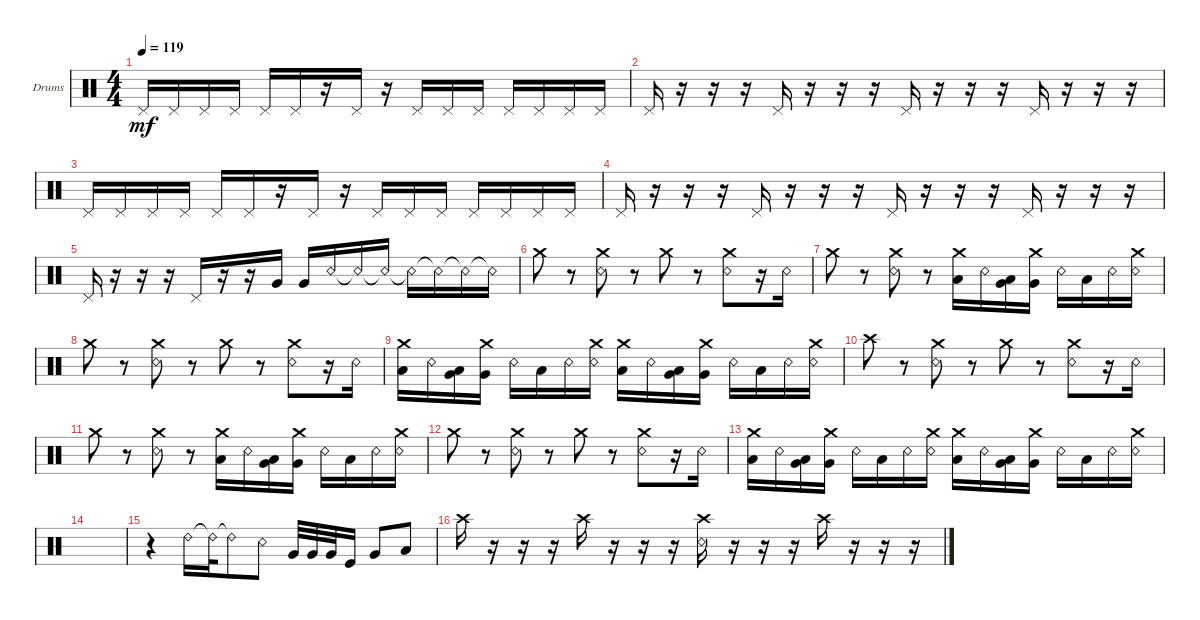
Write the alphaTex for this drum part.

\defaultSystemsLayout 4
\bracketExtendMode groupsimilarinstruments
\firstSystemTrackNameOrientation horizontal
\otherSystemsTrackNameOrientation horizontal
\track ("Drumkit" "Drums") {instrument percussion}
\staff {score}
\articulation defaults
\ts (4 4)
\tempo 119
\clef neutral
\scale
0.333333
\ks c "Pedal Hi-Hat (hit)".16{dy mf} "Pedal Hi-Hat (hit)".16 "Pedal Hi-Hat (hit)".16 "Pedal Hi-Hat (hit)".16 "Pedal Hi-Hat (hit)".16 "Pedal Hi-Hat (hit)".16
r.16 "Pedal Hi-Hat (hit)".16 r.16 "Pedal Hi-Hat (hit)".16 "Pedal Hi-Hat (hit)".16 "Pedal Hi-Hat (hit)".16 "Pedal Hi-Hat (hit)".16 "Pedal Hi-Hat (hit)".16 "Pedal Hi-Hat (hit)".16 "Pedal Hi-Hat (hit)".16 |
\scale
0.333333 "Pedal Hi-Hat (hit)".16 r.16 r.16 r.16 "Pedal Hi-Hat (hit)".16 r.16 r.16 r.16 "Pedal Hi-Hat (hit)".16 r.16 r.16 r.16 "Pedal Hi-Hat (hit)".16 r.16 r.16 r.16 |
\scale
0.333333 "Pedal Hi-Hat (hit)".16 "Pedal Hi-Hat (hit)".16 "Pedal Hi-Hat (hit)".16 "Pedal Hi-Hat (hit)".16 "Pedal Hi-Hat (hit)".16 "Pedal Hi-Hat (hit)".16 r.16 "Pedal Hi-Hat (hit)".16 r.16 "Pedal Hi-Hat (hit)".16 "Pedal Hi-Hat (hit)".16 "Pedal Hi-Hat (hit)".16 "Pedal Hi-Hat (hit)".16 "Pedal Hi-Hat (hit)".16 "Pedal Hi-Hat (hit)".16 "Pedal Hi-Hat (hit)".16 |
\scale
0.333333 "Pedal Hi-Hat (hit)".16 r.16 r.16 r.16 "Pedal Hi-Hat (hit)".16 r.16 r.16 r.16 "Pedal Hi-Hat (hit)".16 r.16 r.16 r.16 "Pedal Hi-Hat (hit)".16 r.16 r.16 r.16 |
\scale
0.333333 "Pedal Hi-Hat (hit)".16 r.16 r.16 r.16 "Pedal Hi-Hat (hit)".16 r.16 r.16 "Very Low Tom (hit)".16 "Very Low Tom (hit)".16 "Snare (rim shot)".16 "Snare (rim shot)"{t}.16 "Snare (rim shot)"{t}.16 "Snare (rim shot)"{t}.16 "Snare (rim shot)"{t}.16 "Snare (rim shot)"{t}.16 "Snare (rim shot)"{t}.16 |
\scale
0.333333 "Crash medium (hit)".8 r.8 ("Snare (rim shot)" "Crash medium (hit)").8 r.8 "Crash medium (hit)".8 r.8 ("Snare (rim shot)" "Crash medium (hit)").8 r.16 "Snare (rim shot)".16 |
\scale
0.333333 "Crash medium (hit)".8 r.8 ("Snare (rim shot)" "Crash medium (hit)").8 r.8 ("Low Tom (hit)" "Crash medium (hit)").16 "Snare (rim shot)".16 ("Very Low Tom (hit)" "Low Tom (hit)").16 ("Very Low Tom (hit)" "Crash medium (hit)").16 "Snare (rim shot)".16 "Low Tom (hit)".16 "Snare (rim shot)".16 ("Snare (rim shot)" "Crash medium (hit)").16 |
\scale
0.333333 "Crash medium (hit)".8 r.8 ("Snare (rim shot)" "Crash medium (hit)").8 r.8 "Crash medium (hit)".8 r.8 ("Snare (rim shot)" "Crash medium (hit)").8 r.16 "Snare (rim shot)".16 |
\scale
0.333333 ("Low Tom (hit)" "Crash medium (hit)").16 "Snare (rim shot)".16 ("Very Low Tom (hit)" "Low Tom (hit)").16 ("Very Low Tom (hit)" "Crash medium (hit)").16 "Snare (rim shot)".16 "Low Tom (hit)".16 "Snare (rim shot)".16 ("Snare (rim shot)" "Crash medium (hit)").16 ("Low Tom (hit)" "Crash medium (hit)").16 "Snare (rim shot)".16 ("Very Low Tom (hit)" "Low Tom (hit)").16 ("Very Low Tom (hit)" "Crash medium (hit)").16 "Snare (rim shot)".16 "Low Tom (hit)".16 "Snare (rim shot)".16 ("Snare (rim shot)" "Crash medium (hit)").16 |
\scale
0.333333 "Crash high (hit)".8 r.8 ("Snare (rim shot)" "Crash medium (hit)").8 r.8 "Crash medium (hit)".8 r.8 ("Snare (rim shot)" "Crash medium (hit)").8 r.16 "Snare (rim shot)".16 |
\scale
0.333333 "Crash medium (hit)".8 r.8 ("Snare (rim shot)" "Crash medium (hit)").8 r.8 ("Low Tom (hit)" "Crash medium (hit)").16 "Snare (rim shot)".16 ("Very Low Tom (hit)" "Low Tom (hit)").16 ("Very Low Tom (hit)" "Crash medium (hit)").16 "Snare (rim shot)".16 "Low Tom (hit)".16 "Snare (rim shot)".16 ("Snare (rim shot)" "Crash medium (hit)").16 |
\scale
0.333333 "Crash medium (hit)".8 r.8 ("Snare (rim shot)" "Crash medium (hit)").8 r.8 "Crash medium (hit)".8 r.8 ("Snare (rim shot)" "Crash medium (hit)").8 r.16 "Snare (rim shot)".16 |
\scale
0.333333 ("Low Tom (hit)" "Crash medium (hit)").16 "Snare (rim shot)".16 ("Very Low Tom (hit)" "Low Tom (hit)").16 ("Very Low Tom (hit)" "Crash medium (hit)").16 "Snare (rim shot)".16 "Low Tom (hit)".16 "Snare (rim shot)".16 ("Snare (rim shot)" "Crash medium (hit)").16 ("Low Tom (hit)" "Crash medium (hit)").16 "Snare (rim shot)".16 ("Very Low Tom (hit)" "Low Tom (hit)").16 ("Very Low Tom (hit)" "Crash medium (hit)").16 "Snare (rim shot)".16 "Low Tom (hit)".16 "Snare (rim shot)".16 ("Snare (rim shot)" "Crash medium (hit)").16 |
\scale
0.333333 |
\scale
0.333333 r.4 "Ride (bell) 2".16 "Ride (bell) 2"{t}.32 "Ride (bell) 2"{t}.8 "Snare (rim shot)".8 "Very Low Tom (hit)".32 "Very Low Tom (hit)".32 "Very Low Tom (hit)".32 "Kick (hit)".16 "Very Low Tom (hit)".8 "Low Tom (hit)".8 |
\scale
0.333333 "Crash high (hit)".16 r.16 r.16 r.16 "Crash high (hit)".16 r.16 r.16 r.16 ("Snare (rim shot)" "Crash high (hit)").16 r.16 r.16 r.16 "Crash high (hit)".16 r.16 r.16 r.16
